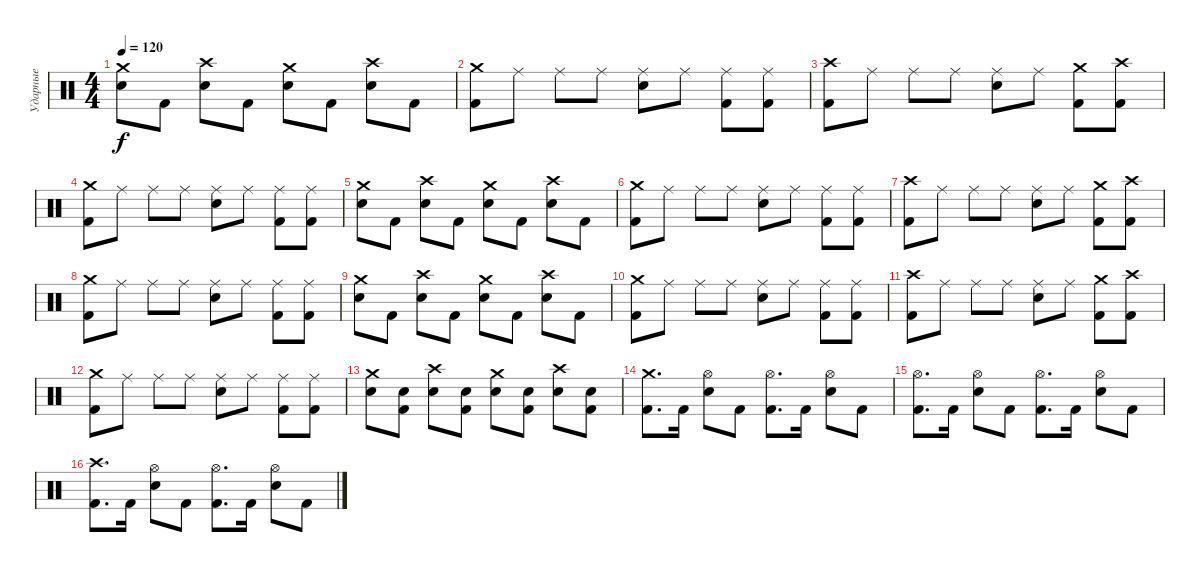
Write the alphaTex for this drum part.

\track ("Ударные" "Ударные") {instrument percussion}
\staff {score}
\articulation defaults
\ts (4 4)
\tempo 120
\clef neutral
\ks c
("Crash medium (hit)" "Electric Snare (hit)").8{dy f} "Kick (hit) 2".8 ("Crash high (hit)" "Electric Snare (hit)").8 "Kick (hit) 2".8 ("Crash medium (hit)" "Electric Snare (hit)").8 "Kick (hit) 2".8 ("Crash high (hit)" "Electric Snare (hit)").8 "Kick (hit) 2".8 |
("Crash medium (hit)" "Kick (hit) 2").8 "Ride (middle)".8 "Ride (middle)".8 "Ride (middle)".8 ("Ride (middle)" "Electric Snare (hit)").8 "Ride (middle)".8 ("Ride (middle)" "Kick (hit) 2").8 ("Ride (middle)" "Kick (hit) 2").8 |
("Crash high (hit)" "Kick (hit) 2").8 "Ride (middle)".8 "Ride (middle)".8 "Ride (middle)".8 ("Ride (middle)" "Electric Snare (hit)").8 "Ride (middle)".8 ("Crash medium (hit)" "Kick (hit) 2").8 ("Crash high (hit)" "Kick (hit) 2").8 |
("Crash medium (hit)" "Kick (hit) 2").8 "Ride (middle)".8 "Ride (middle)".8 "Ride (middle)".8 ("Ride (middle)" "Electric Snare (hit)").8 "Ride (middle)".8 ("Ride (middle)" "Kick (hit) 2").8 ("Ride (middle)" "Kick (hit) 2").8 |
("Crash medium (hit)" "Electric Snare (hit)").8 "Kick (hit) 2".8 ("Crash high (hit)" "Electric Snare (hit)").8 "Kick (hit) 2".8 ("Crash medium (hit)" "Electric Snare (hit)").8 "Kick (hit) 2".8 ("Crash high (hit)" "Electric Snare (hit)").8 "Kick (hit) 2".8 |
("Crash medium (hit)" "Kick (hit) 2").8 "Ride (middle)".8 "Ride (middle)".8 "Ride (middle)".8 ("Ride (middle)" "Electric Snare (hit)").8 "Ride (middle)".8 ("Ride (middle)" "Kick (hit) 2").8 ("Ride (middle)" "Kick (hit) 2").8 |
("Crash high (hit)" "Kick (hit) 2").8 "Ride (middle)".8 "Ride (middle)".8 "Ride (middle)".8 ("Ride (middle)" "Electric Snare (hit)").8 "Ride (middle)".8 ("Crash medium (hit)" "Kick (hit) 2").8 ("Crash high (hit)" "Kick (hit) 2").8 |
("Crash medium (hit)" "Kick (hit) 2").8 "Ride (middle)".8 "Ride (middle)".8 "Ride (middle)".8 ("Ride (middle)" "Electric Snare (hit)").8 "Ride (middle)".8 ("Ride (middle)" "Kick (hit) 2").8 ("Ride (middle)" "Kick (hit) 2").8 |
("Crash medium (hit)" "Electric Snare (hit)").8 "Kick (hit) 2".8 ("Crash high (hit)" "Electric Snare (hit)").8 "Kick (hit) 2".8 ("Crash medium (hit)" "Electric Snare (hit)").8 "Kick (hit) 2".8 ("Crash high (hit)" "Electric Snare (hit)").8 "Kick (hit) 2".8 |
("Crash medium (hit)" "Kick (hit) 2").8 "Ride (middle)".8 "Ride (middle)".8 "Ride (middle)".8 ("Ride (middle)" "Electric Snare (hit)").8 "Ride (middle)".8 ("Ride (middle)" "Kick (hit) 2").8 ("Ride (middle)" "Kick (hit) 2").8 |
("Crash high (hit)" "Kick (hit) 2").8 "Ride (middle)".8 "Ride (middle)".8 "Ride (middle)".8 ("Ride (middle)" "Electric Snare (hit)").8 "Ride (middle)".8 ("Crash medium (hit)" "Kick (hit) 2").8 ("Crash high (hit)" "Kick (hit) 2").8 |
("Crash medium (hit)" "Kick (hit) 2").8 "Ride (middle)".8 "Ride (middle)".8 "Ride (middle)".8 ("Ride (middle)" "Electric Snare (hit)").8 "Ride (middle)".8 ("Ride (middle)" "Kick (hit) 2").8 ("Ride (middle)" "Kick (hit) 2").8 |
("Crash medium (hit)" "Electric Snare (hit)").8 ("Electric Snare (hit)" "Kick (hit) 2").8 ("Crash high (hit)" "Electric Snare (hit)").8 ("Electric Snare (hit)" "Kick (hit) 2").8 ("Crash medium (hit)" "Electric Snare (hit)").8 ("Electric Snare (hit)" "Kick (hit) 2").8 ("Crash high (hit)" "Electric Snare (hit)").8 ("Electric Snare (hit)" "Kick (hit) 2").8 |
("Crash medium (hit)" "Kick (hit) 2").8{d} "Kick (hit) 2".16 ("Hi-Hat (open)" "Electric Snare (hit)").8 "Kick (hit) 2".8 ("Hi-Hat (open)" "Kick (hit) 2").8{d} "Kick (hit) 2".16 ("Hi-Hat (open)" "Electric Snare (hit)").8 "Kick (hit) 2".8 |
("Hi-Hat (open)" "Kick (hit) 2").8{d} "Kick (hit) 2".16 ("Hi-Hat (open)" "Electric Snare (hit)").8 "Kick (hit) 2".8 ("Hi-Hat (open)" "Kick (hit) 2").8{d} "Kick (hit) 2".16 ("Hi-Hat (open)" "Electric Snare (hit)").8 "Kick (hit) 2".8 |
("Crash high (hit)" "Kick (hit) 2").8{d} "Kick (hit) 2".16 ("Hi-Hat (open)" "Electric Snare (hit)").8 "Kick (hit) 2".8 ("Hi-Hat (open)" "Kick (hit) 2").8{d} "Kick (hit) 2".16 ("Hi-Hat (open)" "Electric Snare (hit)").8 "Kick (hit) 2".8
